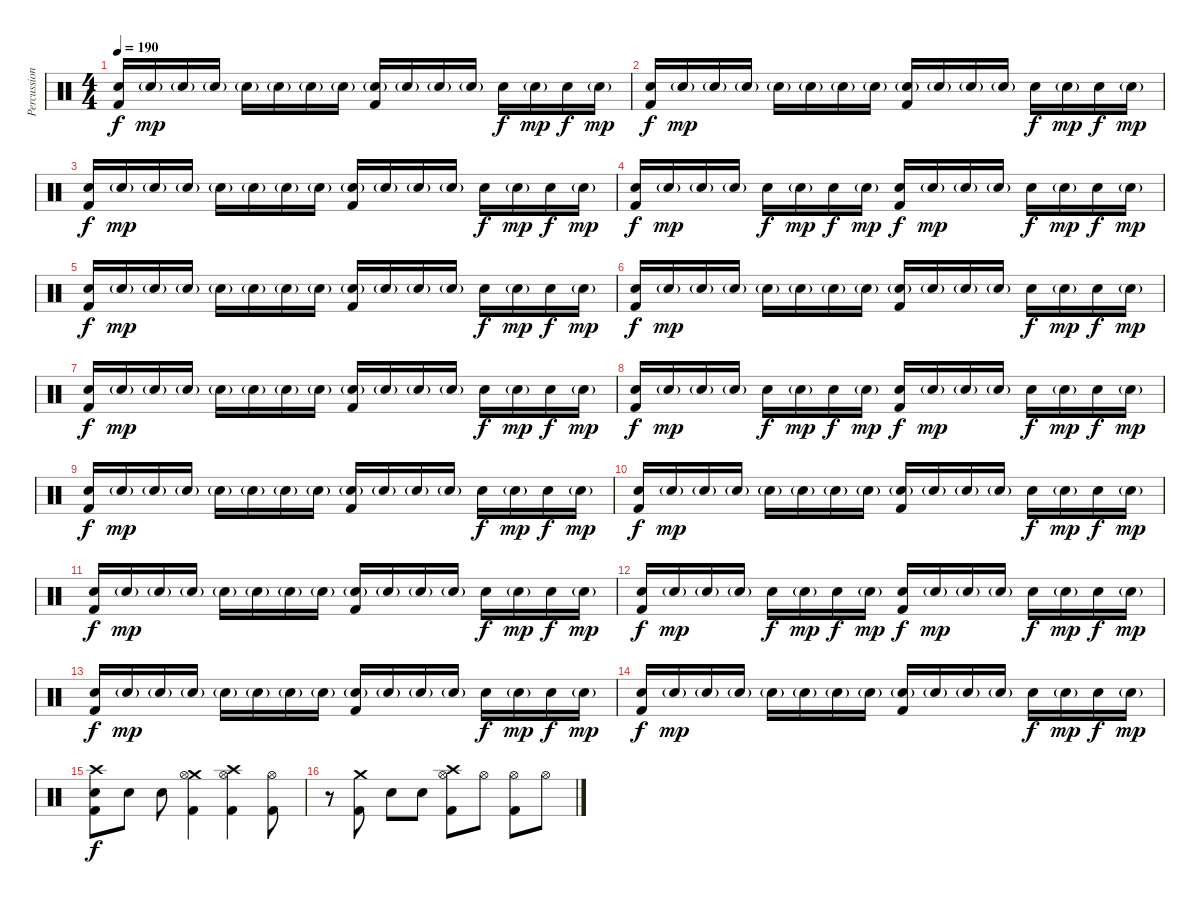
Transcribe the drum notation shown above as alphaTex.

\track ("Percussion" "Percussion") {instrument percussion}
\staff {score}
\articulation defaults
\ts (4 4)
\tempo 190
\clef neutral
\ks c
("Electric Snare (hit)" "Kick (hit) 2").16{dy f} "Electric Snare (hit)"{g}.16{dy mp} "Electric Snare (hit)"{g}.16 "Electric Snare (hit)"{g}.16 "Electric Snare (hit)"{g}.16 "Electric Snare (hit)"{g}.16 "Electric Snare (hit)"{g}.16 "Electric Snare (hit)"{g}.16 ("Electric Snare (hit)"{g} "Kick (hit) 2").16 "Electric Snare (hit)"{g}.16 "Electric Snare (hit)"{g}.16 "Electric Snare (hit)"{g}.16 "Electric Snare (hit)".16{dy f} "Electric Snare (hit)"{g}.16{dy mp} "Electric Snare (hit)".16{dy f} "Electric Snare (hit)"{g}.16{dy mp} |
("Electric Snare (hit)" "Kick (hit) 2").16{dy f} "Electric Snare (hit)"{g}.16{dy mp} "Electric Snare (hit)"{g}.16 "Electric Snare (hit)"{g}.16 "Electric Snare (hit)"{g}.16 "Electric Snare (hit)"{g}.16 "Electric Snare (hit)"{g}.16 "Electric Snare (hit)"{g}.16 ("Electric Snare (hit)"{g} "Kick (hit) 2").16 "Electric Snare (hit)"{g}.16 "Electric Snare (hit)"{g}.16 "Electric Snare (hit)"{g}.16 "Electric Snare (hit)".16{dy f} "Electric Snare (hit)"{g}.16{dy mp} "Electric Snare (hit)".16{dy f} "Electric Snare (hit)"{g}.16{dy mp} |
("Electric Snare (hit)" "Kick (hit) 2").16{dy f} "Electric Snare (hit)"{g}.16{dy mp} "Electric Snare (hit)"{g}.16 "Electric Snare (hit)"{g}.16 "Electric Snare (hit)"{g}.16 "Electric Snare (hit)"{g}.16 "Electric Snare (hit)"{g}.16 "Electric Snare (hit)"{g}.16 ("Electric Snare (hit)"{g} "Kick (hit) 2").16 "Electric Snare (hit)"{g}.16 "Electric Snare (hit)"{g}.16 "Electric Snare (hit)"{g}.16 "Electric Snare (hit)".16{dy f} "Electric Snare (hit)"{g}.16{dy mp} "Electric Snare (hit)".16{dy f} "Electric Snare (hit)"{g}.16{dy mp} |
("Electric Snare (hit)" "Kick (hit) 2").16{dy f} "Electric Snare (hit)"{g}.16{dy mp} "Electric Snare (hit)"{g}.16 "Electric Snare (hit)"{g}.16 "Electric Snare (hit)".16{dy f} "Electric Snare (hit)"{g}.16{dy mp} "Electric Snare (hit)".16{dy f} "Electric Snare (hit)"{g}.16{dy mp} ("Electric Snare (hit)" "Kick (hit) 2").16{dy f} "Electric Snare (hit)"{g}.16{dy mp} "Electric Snare (hit)"{g}.16 "Electric Snare (hit)"{g}.16 "Electric Snare (hit)".16{dy f} "Electric Snare (hit)"{g}.16{dy mp} "Electric Snare (hit)".16{dy f} "Electric Snare (hit)"{g}.16{dy mp} |
("Electric Snare (hit)" "Kick (hit) 2").16{dy f} "Electric Snare (hit)"{g}.16{dy mp} "Electric Snare (hit)"{g}.16 "Electric Snare (hit)"{g}.16 "Electric Snare (hit)"{g}.16 "Electric Snare (hit)"{g}.16 "Electric Snare (hit)"{g}.16 "Electric Snare (hit)"{g}.16 ("Electric Snare (hit)"{g} "Kick (hit) 2").16 "Electric Snare (hit)"{g}.16 "Electric Snare (hit)"{g}.16 "Electric Snare (hit)"{g}.16 "Electric Snare (hit)".16{dy f} "Electric Snare (hit)"{g}.16{dy mp} "Electric Snare (hit)".16{dy f} "Electric Snare (hit)"{g}.16{dy mp} |
("Electric Snare (hit)" "Kick (hit) 2").16{dy f} "Electric Snare (hit)"{g}.16{dy mp} "Electric Snare (hit)"{g}.16 "Electric Snare (hit)"{g}.16 "Electric Snare (hit)"{g}.16 "Electric Snare (hit)"{g}.16 "Electric Snare (hit)"{g}.16 "Electric Snare (hit)"{g}.16 ("Electric Snare (hit)"{g} "Kick (hit) 2").16 "Electric Snare (hit)"{g}.16 "Electric Snare (hit)"{g}.16 "Electric Snare (hit)"{g}.16 "Electric Snare (hit)".16{dy f} "Electric Snare (hit)"{g}.16{dy mp} "Electric Snare (hit)".16{dy f} "Electric Snare (hit)"{g}.16{dy mp} |
("Electric Snare (hit)" "Kick (hit) 2").16{dy f} "Electric Snare (hit)"{g}.16{dy mp} "Electric Snare (hit)"{g}.16 "Electric Snare (hit)"{g}.16 "Electric Snare (hit)"{g}.16 "Electric Snare (hit)"{g}.16 "Electric Snare (hit)"{g}.16 "Electric Snare (hit)"{g}.16 ("Electric Snare (hit)"{g} "Kick (hit) 2").16 "Electric Snare (hit)"{g}.16 "Electric Snare (hit)"{g}.16 "Electric Snare (hit)"{g}.16 "Electric Snare (hit)".16{dy f} "Electric Snare (hit)"{g}.16{dy mp} "Electric Snare (hit)".16{dy f} "Electric Snare (hit)"{g}.16{dy mp} |
("Electric Snare (hit)" "Kick (hit) 2").16{dy f} "Electric Snare (hit)"{g}.16{dy mp} "Electric Snare (hit)"{g}.16 "Electric Snare (hit)"{g}.16 "Electric Snare (hit)".16{dy f} "Electric Snare (hit)"{g}.16{dy mp} "Electric Snare (hit)".16{dy f} "Electric Snare (hit)"{g}.16{dy mp} ("Electric Snare (hit)" "Kick (hit) 2").16{dy f} "Electric Snare (hit)"{g}.16{dy mp} "Electric Snare (hit)"{g}.16 "Electric Snare (hit)"{g}.16 "Electric Snare (hit)".16{dy f} "Electric Snare (hit)"{g}.16{dy mp} "Electric Snare (hit)".16{dy f} "Electric Snare (hit)"{g}.16{dy mp} |
("Electric Snare (hit)" "Kick (hit) 2").16{dy f} "Electric Snare (hit)"{g}.16{dy mp} "Electric Snare (hit)"{g}.16 "Electric Snare (hit)"{g}.16 "Electric Snare (hit)"{g}.16 "Electric Snare (hit)"{g}.16 "Electric Snare (hit)"{g}.16 "Electric Snare (hit)"{g}.16 ("Electric Snare (hit)"{g} "Kick (hit) 2").16 "Electric Snare (hit)"{g}.16 "Electric Snare (hit)"{g}.16 "Electric Snare (hit)"{g}.16 "Electric Snare (hit)".16{dy f} "Electric Snare (hit)"{g}.16{dy mp} "Electric Snare (hit)".16{dy f} "Electric Snare (hit)"{g}.16{dy mp} |
("Electric Snare (hit)" "Kick (hit) 2").16{dy f} "Electric Snare (hit)"{g}.16{dy mp} "Electric Snare (hit)"{g}.16 "Electric Snare (hit)"{g}.16 "Electric Snare (hit)"{g}.16 "Electric Snare (hit)"{g}.16 "Electric Snare (hit)"{g}.16 "Electric Snare (hit)"{g}.16 ("Electric Snare (hit)"{g} "Kick (hit) 2").16 "Electric Snare (hit)"{g}.16 "Electric Snare (hit)"{g}.16 "Electric Snare (hit)"{g}.16 "Electric Snare (hit)".16{dy f} "Electric Snare (hit)"{g}.16{dy mp} "Electric Snare (hit)".16{dy f} "Electric Snare (hit)"{g}.16{dy mp} |
("Electric Snare (hit)" "Kick (hit) 2").16{dy f} "Electric Snare (hit)"{g}.16{dy mp} "Electric Snare (hit)"{g}.16 "Electric Snare (hit)"{g}.16 "Electric Snare (hit)"{g}.16 "Electric Snare (hit)"{g}.16 "Electric Snare (hit)"{g}.16 "Electric Snare (hit)"{g}.16 ("Electric Snare (hit)"{g} "Kick (hit) 2").16 "Electric Snare (hit)"{g}.16 "Electric Snare (hit)"{g}.16 "Electric Snare (hit)"{g}.16 "Electric Snare (hit)".16{dy f} "Electric Snare (hit)"{g}.16{dy mp} "Electric Snare (hit)".16{dy f} "Electric Snare (hit)"{g}.16{dy mp} |
("Electric Snare (hit)" "Kick (hit) 2").16{dy f} "Electric Snare (hit)"{g}.16{dy mp} "Electric Snare (hit)"{g}.16 "Electric Snare (hit)"{g}.16 "Electric Snare (hit)".16{dy f} "Electric Snare (hit)"{g}.16{dy mp} "Electric Snare (hit)".16{dy f} "Electric Snare (hit)"{g}.16{dy mp} ("Electric Snare (hit)" "Kick (hit) 2").16{dy f} "Electric Snare (hit)"{g}.16{dy mp} "Electric Snare (hit)"{g}.16 "Electric Snare (hit)"{g}.16 "Electric Snare (hit)".16{dy f} "Electric Snare (hit)"{g}.16{dy mp} "Electric Snare (hit)".16{dy f} "Electric Snare (hit)"{g}.16{dy mp} |
("Electric Snare (hit)" "Kick (hit) 2").16{dy f} "Electric Snare (hit)"{g}.16{dy mp} "Electric Snare (hit)"{g}.16 "Electric Snare (hit)"{g}.16 "Electric Snare (hit)"{g}.16 "Electric Snare (hit)"{g}.16 "Electric Snare (hit)"{g}.16 "Electric Snare (hit)"{g}.16 ("Electric Snare (hit)"{g} "Kick (hit) 2").16 "Electric Snare (hit)"{g}.16 "Electric Snare (hit)"{g}.16 "Electric Snare (hit)"{g}.16 "Electric Snare (hit)".16{dy f} "Electric Snare (hit)"{g}.16{dy mp} "Electric Snare (hit)".16{dy f} "Electric Snare (hit)"{g}.16{dy mp} |
("Electric Snare (hit)" "Kick (hit) 2").16{dy f} "Electric Snare (hit)"{g}.16{dy mp} "Electric Snare (hit)"{g}.16 "Electric Snare (hit)"{g}.16 "Electric Snare (hit)"{g}.16 "Electric Snare (hit)"{g}.16 "Electric Snare (hit)"{g}.16 "Electric Snare (hit)"{g}.16 ("Electric Snare (hit)"{g} "Kick (hit) 2").16 "Electric Snare (hit)"{g}.16 "Electric Snare (hit)"{g}.16 "Electric Snare (hit)"{g}.16 "Electric Snare (hit)".16{dy f} "Electric Snare (hit)"{g}.16{dy mp} "Electric Snare (hit)".16{dy f} "Electric Snare (hit)"{g}.16{dy mp} |
("Crash high (hit)" "Electric Snare (hit)" "Kick (hit) 2").8{dy f} "Electric Snare (hit)".8 "Electric Snare (hit)".8 ("Crash medium (hit)" "Hi-Hat (open)" "Kick (hit) 2").4 ("Crash high (hit)" "Hi-Hat (open)" "Kick (hit) 2").4 ("Hi-Hat (open)" "Kick (hit) 2").8 |
r.8 ("Crash medium (hit)" "Kick (hit) 2").8 "Electric Snare (hit)".8 "Electric Snare (hit)".8 ("Crash high (hit)" "Hi-Hat (open)" "Kick (hit) 2").8 "Hi-Hat (open)".8 ("Hi-Hat (open)" "Kick (hit) 2").8 "Hi-Hat (open)".8
